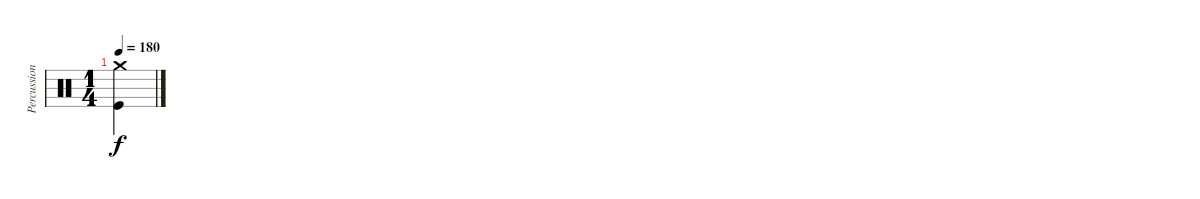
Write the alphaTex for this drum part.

\track ("Percussion" "Percussion") {instrument percussion}
\staff {score}
\articulation defaults
\ts (1 4)
\tempo 180
\clef neutral
\ks c
("Kick (hit)" "Crash medium (hit)").4{dy f}
